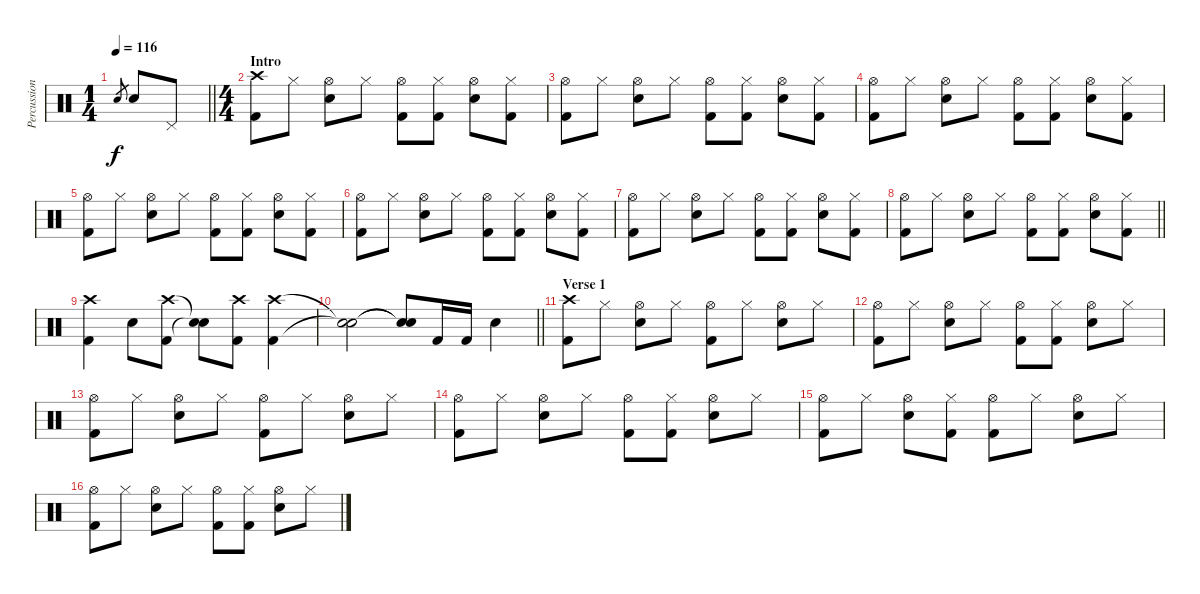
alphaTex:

\track ("Percussion" "Percussion") {instrument percussion}
\staff {score}
\articulation defaults
\ts (1 4)
\tempo 116
\clef neutral
\barLineRight lightlight
\ks c "Snare (hit) 2".8{gr dy f} "Snare (hit) 2".8 "Pedal Hi-Hat (hit)".8
|
\ts (4 4)
\section ("" "Intro")
("Crash high (hit)" "Kick (hit) 2").8 "Hi-Hat (closed)".8 ("Hi-Hat (open)" "Snare (hit) 2").8 "Hi-Hat (closed)".8 ("Hi-Hat (open)" "Kick (hit) 2").8 ("Hi-Hat (closed)" "Kick (hit) 2").8 ("Hi-Hat (open)" "Snare (hit) 2").8 ("Hi-Hat (closed)" "Kick (hit) 2").8 |
("Hi-Hat (open)" "Kick (hit) 2").8 "Hi-Hat (closed)".8 ("Hi-Hat (open)" "Snare (hit) 2").8 "Hi-Hat (closed)".8 ("Hi-Hat (open)" "Kick (hit) 2").8 ("Hi-Hat (closed)" "Kick (hit) 2").8 ("Hi-Hat (open)" "Snare (hit) 2").8 ("Hi-Hat (closed)" "Kick (hit) 2").8 |
("Hi-Hat (open)" "Kick (hit) 2").8 "Hi-Hat (closed)".8 ("Hi-Hat (open)" "Snare (hit) 2").8 "Hi-Hat (closed)".8 ("Hi-Hat (open)" "Kick (hit) 2").8 ("Hi-Hat (closed)" "Kick (hit) 2").8 ("Hi-Hat (open)" "Snare (hit) 2").8 ("Hi-Hat (closed)" "Kick (hit) 2").8 |
("Hi-Hat (open)" "Kick (hit) 2").8 "Hi-Hat (closed)".8 ("Hi-Hat (open)" "Snare (hit) 2").8 "Hi-Hat (closed)".8 ("Hi-Hat (open)" "Kick (hit) 2").8 ("Hi-Hat (closed)" "Kick (hit) 2").8 ("Hi-Hat (open)" "Snare (hit) 2").8 ("Hi-Hat (closed)" "Kick (hit) 2").8 |
("Hi-Hat (open)" "Kick (hit) 2").8 "Hi-Hat (closed)".8 ("Hi-Hat (open)" "Snare (hit) 2").8 "Hi-Hat (closed)".8 ("Hi-Hat (open)" "Kick (hit) 2").8 ("Hi-Hat (closed)" "Kick (hit) 2").8 ("Hi-Hat (open)" "Snare (hit) 2").8 ("Hi-Hat (closed)" "Kick (hit) 2").8 |
("Hi-Hat (open)" "Kick (hit) 2").8 "Hi-Hat (closed)".8 ("Hi-Hat (open)" "Snare (hit) 2").8 "Hi-Hat (closed)".8 ("Hi-Hat (open)" "Kick (hit) 2").8 ("Hi-Hat (closed)" "Kick (hit) 2").8 ("Hi-Hat (open)" "Snare (hit) 2").8 ("Hi-Hat (closed)" "Kick (hit) 2").8 |
\barLineRight lightlight
("Hi-Hat (open)" "Kick (hit) 2").8 "Hi-Hat (closed)".8 ("Hi-Hat (open)" "Snare (hit) 2").8 "Hi-Hat (closed)".8 ("Hi-Hat (open)" "Kick (hit) 2").8 ("Hi-Hat (closed)" "Kick (hit) 2").8 ("Hi-Hat (open)" "Snare (hit) 2").8 ("Hi-Hat (closed)" "Kick (hit) 2").8 |
("Crash high (hit)" "Kick (hit) 2").4 "Snare (hit) 2".8 ("Crash high (hit)" "Kick (hit) 2").8 ("Snare (hit)"{t} "Snare (hit)"{t}).8 ("Crash high (hit)" "Kick (hit) 2").8 ("Crash high (hit)" "Kick (hit) 2").4 |
\barLineRight lightlight
("Snare (hit)"{t} "Snare (hit)"{t}).2 ("Snare (hit)"{t} "Snare (hit)"{t}).8 "Kick (hit) 2".16 "Kick (hit) 2".16 "Snare (hit) 2".4 |
\section ("" "Verse 1")
("Crash high (hit)" "Kick (hit) 2").8 "Hi-Hat (closed)".8 ("Hi-Hat (open)" "Snare (hit) 2").8 "Hi-Hat (closed)".8 ("Hi-Hat (open)" "Kick (hit) 2").8 "Hi-Hat (closed)".8 ("Hi-Hat (open)" "Snare (hit) 2").8 "Hi-Hat (closed)".8 |
("Hi-Hat (open)" "Kick (hit) 2").8 "Hi-Hat (closed)".8 ("Hi-Hat (open)" "Snare (hit) 2").8 "Hi-Hat (closed)".8 ("Hi-Hat (open)" "Kick (hit) 2").8 ("Hi-Hat (closed)" "Kick (hit) 2").8 ("Hi-Hat (open)" "Snare (hit) 2").8 "Hi-Hat (closed)".8 |
("Hi-Hat (open)" "Kick (hit) 2").8 "Hi-Hat (closed)".8 ("Hi-Hat (open)" "Snare (hit) 2").8 "Hi-Hat (closed)".8 ("Hi-Hat (open)" "Kick (hit) 2").8 "Hi-Hat (closed)".8 ("Hi-Hat (open)" "Snare (hit) 2").8 "Hi-Hat (closed)".8 |
("Hi-Hat (open)" "Kick (hit) 2").8 "Hi-Hat (closed)".8 ("Hi-Hat (open)" "Snare (hit) 2").8 "Hi-Hat (closed)".8 ("Hi-Hat (open)" "Kick (hit) 2").8 ("Hi-Hat (closed)" "Kick (hit) 2").8 ("Hi-Hat (open)" "Snare (hit) 2").8 "Hi-Hat (closed)".8 |
("Hi-Hat (open)" "Kick (hit) 2").8 "Hi-Hat (closed)".8 ("Hi-Hat (open)" "Snare (hit) 2").8 ("Hi-Hat (closed)" "Kick (hit) 2").8 ("Hi-Hat (open)" "Kick (hit) 2").8 "Hi-Hat (closed)".8 ("Hi-Hat (open)" "Snare (hit) 2").8 "Hi-Hat (closed)".8 |
("Hi-Hat (open)" "Kick (hit) 2").8 "Hi-Hat (closed)".8 ("Hi-Hat (open)" "Snare (hit) 2").8 "Hi-Hat (closed)".8 ("Hi-Hat (open)" "Kick (hit) 2").8 ("Hi-Hat (closed)" "Kick (hit) 2").8 ("Hi-Hat (open)" "Snare (hit) 2").8 "Hi-Hat (closed)".8
